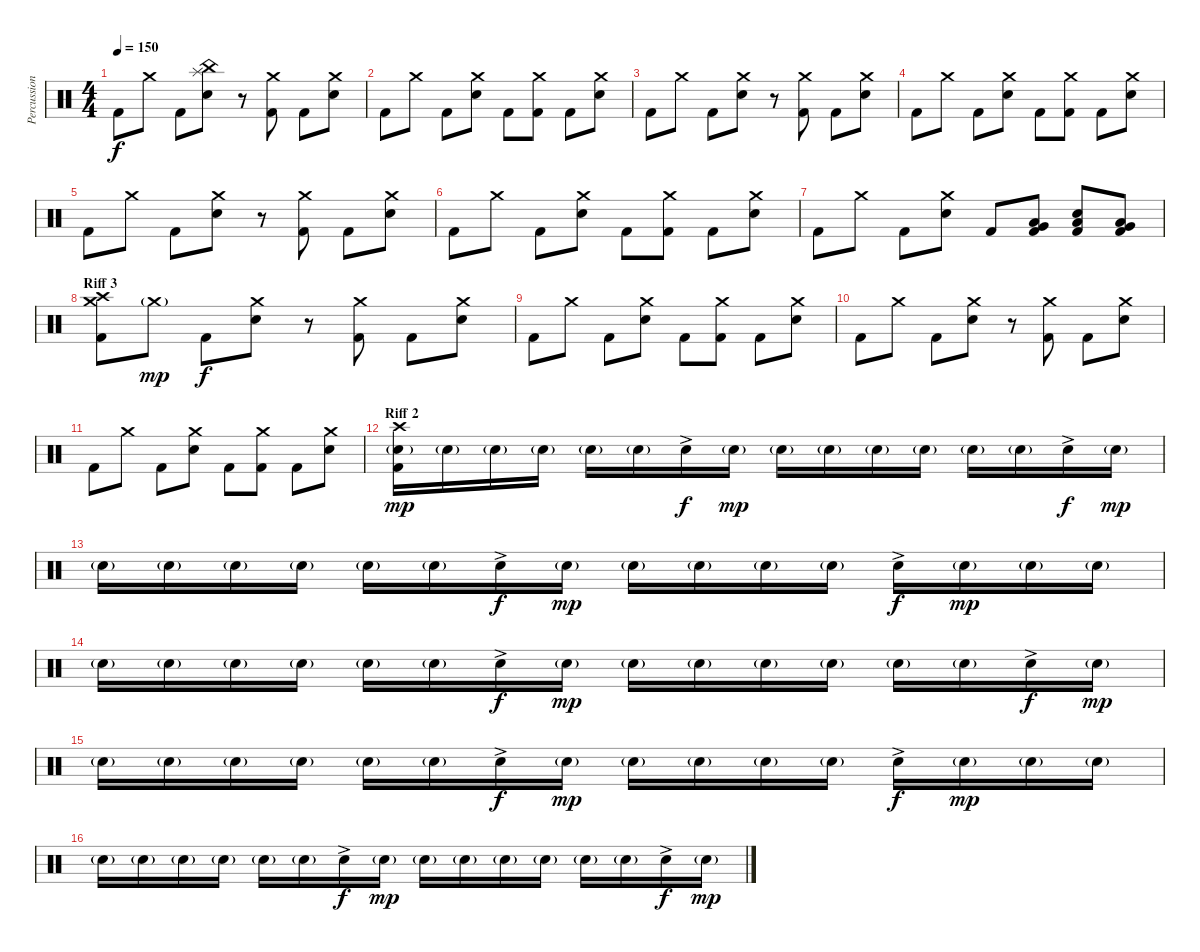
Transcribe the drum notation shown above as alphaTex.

\track ("Percussion" "Percussion") {instrument percussion}
\staff {score}
\articulation defaults
\ts (4 4)
\tempo 150
\clef neutral
\ks c "Kick (hit) 2".8{dy f} "Crash medium (hit)".8 "Kick (hit) 2".8
("China (hit)" "Splash (hit)" "Electric Snare (hit)").8 r.8 ("Crash medium (hit)" "Kick (hit) 2").8 "Kick (hit) 2".8 ("Crash medium (hit)" "Electric Snare (hit)").8 |
"Kick (hit) 2".8 "Crash medium (hit)".8 "Kick (hit) 2".8 ("Crash medium (hit)" "Electric Snare (hit)").8 "Kick (hit) 2".8 ("Crash medium (hit)" "Kick (hit) 2").8 "Kick (hit) 2".8 ("Crash medium (hit)" "Electric Snare (hit)").8 |
"Kick (hit) 2".8 "Crash medium (hit)".8 "Kick (hit) 2".8 ("Crash medium (hit)" "Electric Snare (hit)").8 r.8 ("Crash medium (hit)" "Kick (hit) 2").8 "Kick (hit) 2".8 ("Crash medium (hit)" "Electric Snare (hit)").8 |
"Kick (hit) 2".8 "Crash medium (hit)".8 "Kick (hit) 2".8 ("Crash medium (hit)" "Electric Snare (hit)").8 "Kick (hit) 2".8 ("Crash medium (hit)" "Kick (hit) 2").8 "Kick (hit) 2".8 ("Crash medium (hit)" "Electric Snare (hit)").8 |
"Kick (hit) 2".8 "Crash medium (hit)".8 "Kick (hit) 2".8 ("Crash medium (hit)" "Electric Snare (hit)").8 r.8 ("Crash medium (hit)" "Kick (hit) 2").8 "Kick (hit) 2".8 ("Crash medium (hit)" "Electric Snare (hit)").8 |
"Kick (hit) 2".8 "Crash medium (hit)".8 "Kick (hit) 2".8 ("Crash medium (hit)" "Electric Snare (hit)").8 "Kick (hit) 2".8 ("Crash medium (hit)" "Kick (hit) 2").8 "Kick (hit) 2".8 ("Crash medium (hit)" "Electric Snare (hit)").8 |
"Kick (hit) 2".8 "Crash medium (hit)".8 "Kick (hit) 2".8 ("Crash medium (hit)" "Electric Snare (hit)").8 "Kick (hit) 2".8 ("Very Low Tom (hit)" "Low Floor Tom (hit)" "Kick (hit) 2").8 ("Electric Snare (hit)" "Low Floor Tom (hit)" "Kick (hit) 2").8 ("Very Low Tom (hit)" "Low Floor Tom (hit)" "Kick (hit) 2").8 |
\section ("" "Riff 3")
("Crash medium (hit)" "Crash high (hit)" "Kick (hit) 2").8 "Crash medium (hit)"{g}.8{dy mp} "Kick (hit) 2".8{dy f} ("Crash medium (hit)" "Electric Snare (hit)").8 r.8 ("Crash medium (hit)" "Kick (hit) 2").8 "Kick (hit) 2".8 ("Crash medium (hit)" "Electric Snare (hit)").8 |
"Kick (hit) 2".8 "Crash medium (hit)".8 "Kick (hit) 2".8 ("Crash medium (hit)" "Electric Snare (hit)").8 "Kick (hit) 2".8 ("Crash medium (hit)" "Kick (hit) 2").8 "Kick (hit) 2".8 ("Crash medium (hit)" "Electric Snare (hit)").8 |
"Kick (hit) 2".8 "Crash medium (hit)".8 "Kick (hit) 2".8 ("Crash medium (hit)" "Electric Snare (hit)").8 r.8 ("Crash medium (hit)" "Kick (hit) 2").8 "Kick (hit) 2".8 ("Crash medium (hit)" "Electric Snare (hit)").8 |
"Kick (hit) 2".8 "Crash medium (hit)".8 "Kick (hit) 2".8 ("Crash medium (hit)" "Electric Snare (hit)").8 "Kick (hit) 2".8 ("Crash medium (hit)" "Kick (hit) 2").8 "Kick (hit) 2".8 ("Crash medium (hit)" "Electric Snare (hit)").8 |
\section ("" "Riff 2")
("Crash high (hit)" "Electric Snare (hit)"{g} "Kick (hit) 2").16{dy mp} "Electric Snare (hit)"{g}.16 "Electric Snare (hit)"{g}.16 "Electric Snare (hit)"{g}.16 "Electric Snare (hit)"{g}.16 "Electric Snare (hit)"{g}.16 "Electric Snare (hit)"{ac}.16{dy f} "Electric Snare (hit)"{g}.16{dy mp} "Electric Snare (hit)"{g}.16 "Electric Snare (hit)"{g}.16 "Electric Snare (hit)"{g}.16 "Electric Snare (hit)"{g}.16 "Electric Snare (hit)"{g}.16 "Electric Snare (hit)"{g}.16 "Electric Snare (hit)"{ac}.16{dy f} "Electric Snare (hit)"{g}.16{dy mp} |
"Electric Snare (hit)"{g}.16 "Electric Snare (hit)"{g}.16 "Electric Snare (hit)"{g}.16 "Electric Snare (hit)"{g}.16 "Electric Snare (hit)"{g}.16 "Electric Snare (hit)"{g}.16 "Electric Snare (hit)"{ac}.16{dy f} "Electric Snare (hit)"{g}.16{dy mp} "Electric Snare (hit)"{g}.16 "Electric Snare (hit)"{g}.16 "Electric Snare (hit)"{g}.16 "Electric Snare (hit)"{g}.16 "Electric Snare (hit)"{ac}.16{dy f} "Electric Snare (hit)"{g}.16{dy mp} "Electric Snare (hit)"{g}.16 "Electric Snare (hit)"{g}.16 |
"Electric Snare (hit)"{g}.16 "Electric Snare (hit)"{g}.16 "Electric Snare (hit)"{g}.16 "Electric Snare (hit)"{g}.16 "Electric Snare (hit)"{g}.16 "Electric Snare (hit)"{g}.16 "Electric Snare (hit)"{ac}.16{dy f} "Electric Snare (hit)"{g}.16{dy mp} "Electric Snare (hit)"{g}.16 "Electric Snare (hit)"{g}.16 "Electric Snare (hit)"{g}.16 "Electric Snare (hit)"{g}.16 "Electric Snare (hit)"{g}.16 "Electric Snare (hit)"{g}.16 "Electric Snare (hit)"{ac}.16{dy f} "Electric Snare (hit)"{g}.16{dy mp} |
"Electric Snare (hit)"{g}.16 "Electric Snare (hit)"{g}.16 "Electric Snare (hit)"{g}.16 "Electric Snare (hit)"{g}.16 "Electric Snare (hit)"{g}.16 "Electric Snare (hit)"{g}.16 "Electric Snare (hit)"{ac}.16{dy f} "Electric Snare (hit)"{g}.16{dy mp} "Electric Snare (hit)"{g}.16 "Electric Snare (hit)"{g}.16 "Electric Snare (hit)"{g}.16 "Electric Snare (hit)"{g}.16 "Electric Snare (hit)"{ac}.16{dy f} "Electric Snare (hit)"{g}.16{dy mp} "Electric Snare (hit)"{g}.16 "Electric Snare (hit)"{g}.16 |
"Electric Snare (hit)"{g}.16 "Electric Snare (hit)"{g}.16 "Electric Snare (hit)"{g}.16 "Electric Snare (hit)"{g}.16 "Electric Snare (hit)"{g}.16 "Electric Snare (hit)"{g}.16 "Electric Snare (hit)"{ac}.16{dy f} "Electric Snare (hit)"{g}.16{dy mp} "Electric Snare (hit)"{g}.16 "Electric Snare (hit)"{g}.16 "Electric Snare (hit)"{g}.16 "Electric Snare (hit)"{g}.16 "Electric Snare (hit)"{g}.16 "Electric Snare (hit)"{g}.16 "Electric Snare (hit)"{ac}.16{dy f} "Electric Snare (hit)"{g}.16{dy mp}
